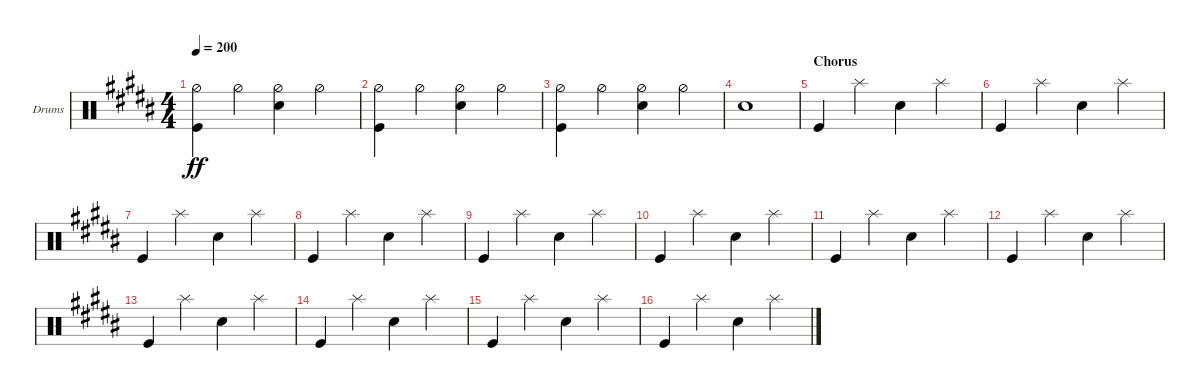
\defaultSystemsLayout 4
\bracketExtendMode groupsimilarinstruments
\firstSystemTrackNameOrientation horizontal
\otherSystemsTrackNameOrientation horizontal
\track ("Drumkit" "Drums") {instrument percussion}
\staff {score}
\articulation defaults
\ts (4 4)
\tempo 200
\clef neutral
\ks b
("Hi-Hat (half)" "Kick (hit)").4{dy ff} "Hi-Hat (half)".4 ("Hi-Hat (half)" "Snare (hit) 2").4 "Hi-Hat (half)".4 |
("Hi-Hat (half)" "Kick (hit)").4 "Hi-Hat (half)".4 ("Hi-Hat (half)" "Snare (hit) 2").4 "Hi-Hat (half)".4 |
("Hi-Hat (half)" "Kick (hit)").4 "Hi-Hat (half)".4 ("Hi-Hat (half)" "Snare (hit) 2").4 "Hi-Hat (half)".4 |
"Snare (hit) 2".1 |
\section ("" "Chorus")
"Kick (hit)".4 "Splash (hit)".4 "Snare (hit) 2".4 "Splash (hit)".4 |
"Kick (hit)".4 "Splash (hit)".4 "Snare (hit) 2".4 "Splash (hit)".4 |
"Kick (hit)".4 "Splash (hit)".4 "Snare (hit) 2".4 "Splash (hit)".4 |
"Kick (hit)".4 "Splash (hit)".4 "Snare (hit) 2".4 "Splash (hit)".4 |
"Kick (hit)".4 "Splash (hit)".4 "Snare (hit) 2".4 "Splash (hit)".4 |
"Kick (hit)".4 "Splash (hit)".4 "Snare (hit) 2".4 "Splash (hit)".4 |
"Kick (hit)".4 "Splash (hit)".4 "Snare (hit) 2".4 "Splash (hit)".4 |
"Kick (hit)".4 "Splash (hit)".4 "Snare (hit) 2".4 "Splash (hit)".4 |
"Kick (hit)".4 "Splash (hit)".4 "Snare (hit) 2".4 "Splash (hit)".4 |
"Kick (hit)".4 "Splash (hit)".4 "Snare (hit) 2".4 "Splash (hit)".4 |
"Kick (hit)".4 "Splash (hit)".4 "Snare (hit) 2".4 "Splash (hit)".4 |
"Kick (hit)".4 "Splash (hit)".4 "Snare (hit) 2".4 "Splash (hit)".4
